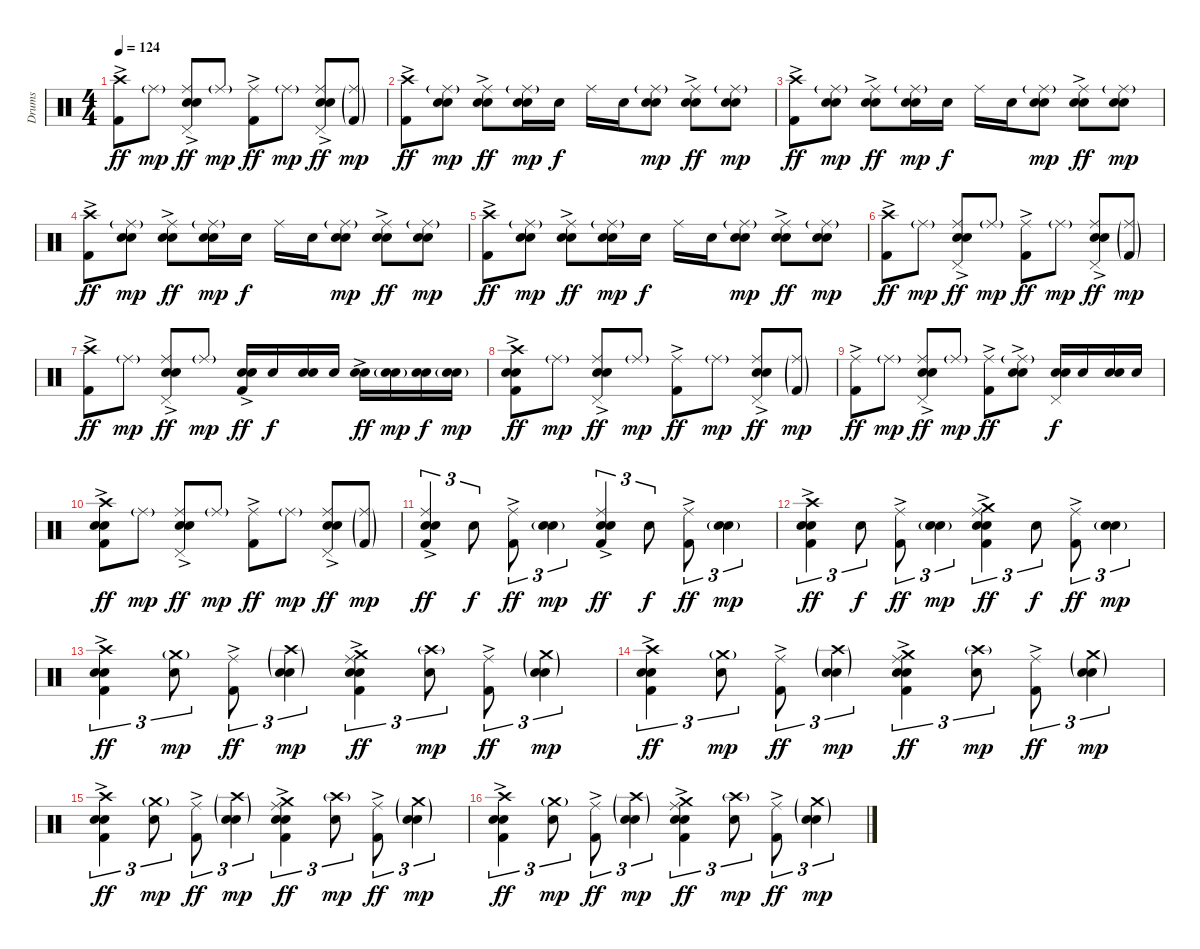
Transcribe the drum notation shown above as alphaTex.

\track ("Drums" "Drums") {instrument percussion}
\staff {score}
\articulation defaults
\ts (4 4)
\tempo 124
\clef neutral
\ks c
("Crash high (hit)" "Kick (hit) 2"{ac}).8{dy ff} "Ride (middle)"{g}.8{dy mp} ("Ride (middle)" "Electric Snare (hit)"{ac} "Snare (hit) 2" "Pedal Hi-Hat (hit)").8{dy ff} "Ride (middle)"{g}.8{dy mp} ("Ride (middle)" "Kick (hit) 2"{ac}).8{dy ff} "Ride (middle)"{g}.8{dy mp} ("Ride (middle)" "Electric Snare (hit)"{ac} "Snare (hit) 2" "Pedal Hi-Hat (hit)").8{dy ff} ("Ride (middle)"{g} "Kick (hit) 2"{g}).8{dy mp} |
("Crash high (hit)" "Kick (hit) 2"{ac}).8{dy ff} ("Ride (middle)"{g} "Electric Snare (hit)" "Snare (hit) 2").8{dy mp} ("Ride (middle)" "Electric Snare (hit)"{ac} "Snare (hit) 2").8{dy ff} ("Ride (middle)"{g} "Electric Snare (hit)" "Snare (hit) 2").16{dy mp} "Snare (hit) 2".16{dy f} "Ride (middle)".16 "Snare (hit) 2".16 ("Ride (middle)"{g} "Electric Snare (hit)" "Snare (hit) 2").8{dy mp} ("Ride (middle)" "Electric Snare (hit)"{ac} "Snare (hit) 2").8{dy ff} ("Ride (middle)"{g} "Electric Snare (hit)" "Snare (hit) 2").8{dy mp} |
("Crash high (hit)" "Kick (hit) 2"{ac}).8{dy ff} ("Ride (middle)"{g} "Electric Snare (hit)" "Snare (hit) 2").8{dy mp} ("Ride (middle)" "Electric Snare (hit)"{ac} "Snare (hit) 2").8{dy ff} ("Ride (middle)"{g} "Electric Snare (hit)" "Snare (hit) 2").16{dy mp} "Snare (hit) 2".16{dy f} "Ride (middle)".16 "Snare (hit) 2".16 ("Ride (middle)"{g} "Electric Snare (hit)" "Snare (hit) 2").8{dy mp} ("Ride (middle)" "Electric Snare (hit)"{ac} "Snare (hit) 2").8{dy ff} ("Ride (middle)"{g} "Electric Snare (hit)" "Snare (hit) 2").8{dy mp} |
("Crash high (hit)" "Kick (hit) 2"{ac}).8{dy ff} ("Ride (middle)"{g} "Electric Snare (hit)" "Snare (hit) 2").8{dy mp} ("Ride (middle)" "Electric Snare (hit)"{ac} "Snare (hit) 2").8{dy ff} ("Ride (middle)"{g} "Electric Snare (hit)" "Snare (hit) 2").16{dy mp} "Snare (hit) 2".16{dy f} "Ride (middle)".16 "Snare (hit) 2".16 ("Ride (middle)"{g} "Electric Snare (hit)" "Snare (hit) 2").8{dy mp} ("Ride (middle)" "Electric Snare (hit)"{ac} "Snare (hit) 2").8{dy ff} ("Ride (middle)"{g} "Electric Snare (hit)" "Snare (hit) 2").8{dy mp} |
("Crash high (hit)" "Kick (hit) 2"{ac}).8{dy ff} ("Ride (middle)"{g} "Electric Snare (hit)" "Snare (hit) 2").8{dy mp} ("Ride (middle)" "Electric Snare (hit)"{ac} "Snare (hit) 2").8{dy ff} ("Ride (middle)"{g} "Electric Snare (hit)" "Snare (hit) 2").16{dy mp} "Snare (hit) 2".16{dy f} "Ride (middle)".16 "Snare (hit) 2".16 ("Ride (middle)"{g} "Electric Snare (hit)" "Snare (hit) 2").8{dy mp} ("Ride (middle)" "Electric Snare (hit)"{ac} "Snare (hit) 2").8{dy ff} ("Ride (middle)"{g} "Electric Snare (hit)" "Snare (hit) 2").8{dy mp} |
("Crash high (hit)" "Kick (hit) 2"{ac}).8{dy ff} "Ride (middle)"{g}.8{dy mp} ("Ride (middle)" "Electric Snare (hit)"{ac} "Snare (hit) 2" "Pedal Hi-Hat (hit)").8{dy ff} "Ride (middle)"{g}.8{dy mp} ("Ride (middle)" "Kick (hit) 2"{ac}).8{dy ff} "Ride (middle)"{g}.8{dy mp} ("Ride (middle)" "Electric Snare (hit)"{ac} "Snare (hit) 2" "Pedal Hi-Hat (hit)").8{dy ff} ("Ride (middle)"{g} "Kick (hit) 2"{g}).8{dy mp} |
("Crash high (hit)" "Kick (hit) 2"{ac}).8{dy ff} "Ride (middle)"{g}.8{dy mp} ("Ride (middle)" "Electric Snare (hit)"{ac} "Snare (hit) 2" "Pedal Hi-Hat (hit)").8{dy ff} "Ride (middle)"{g}.8{dy mp} ("Electric Snare (hit)" "Snare (hit) 2" "Kick (hit) 2"{ac}).16{dy ff} "Snare (hit) 2".16{dy f} ("Electric Snare (hit)" "Snare (hit) 2").16 "Snare (hit) 2".16 ("Electric Snare (hit)"{ac} "Snare (hit) 2").16{dy ff} ("Electric Snare (hit)"{g} "Snare (hit) 2").16{dy mp} ("Electric Snare (hit)" "Snare (hit) 2").16{dy f} ("Electric Snare (hit)"{g} "Snare (hit) 2").16{dy mp} |
("Crash high (hit)" "Electric Snare (hit)" "Snare (hit) 2" "Kick (hit) 2"{ac}).8{dy ff} "Ride (middle)"{g}.8{dy mp} ("Ride (middle)" "Electric Snare (hit)"{ac} "Snare (hit) 2" "Pedal Hi-Hat (hit)").8{dy ff} "Ride (middle)"{g}.8{dy mp} ("Ride (middle)" "Kick (hit) 2"{ac}).8{dy ff} "Ride (middle)"{g}.8{dy mp} ("Ride (middle)" "Electric Snare (hit)"{ac} "Snare (hit) 2" "Pedal Hi-Hat (hit)").8{dy ff} ("Ride (middle)"{g} "Kick (hit) 2"{g}).8{dy mp} |
("Ride (middle)" "Kick (hit) 2"{ac}).8{dy ff} "Ride (middle)"{g}.8{dy mp} ("Ride (middle)" "Electric Snare (hit)"{ac} "Snare (hit) 2" "Pedal Hi-Hat (hit)").8{dy ff} "Ride (middle)"{g}.8{dy mp} ("Ride (middle)" "Kick (hit) 2"{ac}).8{dy ff} ("Ride (middle)"{g} "Electric Snare (hit)"{ac} "Snare (hit) 2").8 ("Electric Snare (hit)" "Snare (hit) 2" "Pedal Hi-Hat (hit)").16{dy f} "Snare (hit) 2".16 ("Electric Snare (hit)" "Snare (hit) 2").16 "Snare (hit) 2".16 |
("Crash high (hit)" "Electric Snare (hit)" "Snare (hit) 2" "Kick (hit) 2"{ac}).8{dy ff} "Ride (middle)"{g}.8{dy mp} ("Ride (middle)" "Electric Snare (hit)"{ac} "Snare (hit) 2" "Pedal Hi-Hat (hit)").8{dy ff} "Ride (middle)"{g}.8{dy mp} ("Ride (middle)" "Kick (hit) 2"{ac}).8{dy ff} "Ride (middle)"{g}.8{dy mp} ("Ride (middle)" "Electric Snare (hit)"{ac} "Snare (hit) 2" "Pedal Hi-Hat (hit)").8{dy ff} ("Ride (middle)"{g} "Kick (hit) 2"{g}).8{dy mp} |
("Ride (middle)" "Electric Snare (hit)"{ac} "Snare (hit) 2" "Kick (hit) 2"{ac}).4{tu (3 2) dy ff} "Snare (hit) 2".8{tu (3 2) dy f} ("Ride (middle)" "Kick (hit) 2"{ac}).8{tu (3 2) dy ff} ("Electric Snare (hit)"{g} "Snare (hit) 2").4{tu (3 2) dy mp} ("Ride (middle)" "Electric Snare (hit)"{ac} "Snare (hit) 2" "Kick (hit) 2"{ac}).4{tu (3 2) dy ff} "Snare (hit) 2".8{tu (3 2) dy f} ("Ride (middle)" "Kick (hit) 2"{ac}).8{tu (3 2) dy ff} ("Electric Snare (hit)"{g} "Snare (hit) 2").4{tu (3 2) dy mp} |
("Crash high (hit)" "Electric Snare (hit)"{ac} "Snare (hit) 2" "Kick (hit) 2"{ac}).4{tu (3 2) dy ff} "Snare (hit) 2".8{tu (3 2) dy f} ("Ride (middle)" "Kick (hit) 2"{ac}).8{tu (3 2) dy ff} ("Electric Snare (hit)"{g} "Snare (hit) 2").4{tu (3 2) dy mp} ("Ride (middle)" "Crash medium (hit)" "Electric Snare (hit)"{ac} "Snare (hit) 2" "Kick (hit) 2"{ac}).4{tu (3 2) dy ff} "Snare (hit) 2".8{tu (3 2) dy f} ("Ride (middle)" "Kick (hit) 2"{ac}).8{tu (3 2) dy ff} ("Electric Snare (hit)"{g} "Snare (hit) 2").4{tu (3 2) dy mp} |
("Crash high (hit)" "Electric Snare (hit)"{ac} "Snare (hit) 2" "Kick (hit) 2"{ac}).4{tu (3 2) dy ff} ("Crash medium (hit)"{g} "Snare (hit) 2").8{tu (3 2) dy mp} ("Ride (middle)" "Kick (hit) 2"{ac}).8{tu (3 2) dy ff} ("Crash high (hit)"{g} "Electric Snare (hit)"{g} "Snare (hit) 2").4{tu (3 2) dy mp} ("Ride (middle)" "Crash medium (hit)" "Electric Snare (hit)"{ac} "Snare (hit) 2" "Kick (hit) 2"{ac}).4{tu (3 2) dy ff} ("Crash high (hit)"{g} "Snare (hit) 2").8{tu (3 2) dy mp} ("Ride (middle)" "Kick (hit) 2"{ac}).8{tu (3 2) dy ff} ("Crash medium (hit)"{g} "Electric Snare (hit)"{g} "Snare (hit) 2").4{tu (3 2) dy mp} |
("Crash high (hit)" "Electric Snare (hit)"{ac} "Snare (hit) 2" "Kick (hit) 2"{ac}).4{tu (3 2) dy ff} ("Crash medium (hit)"{g} "Snare (hit) 2").8{tu (3 2) dy mp} ("Ride (middle)" "Kick (hit) 2"{ac}).8{tu (3 2) dy ff} ("Crash high (hit)"{g} "Electric Snare (hit)"{g} "Snare (hit) 2").4{tu (3 2) dy mp} ("Ride (middle)" "Crash medium (hit)" "Electric Snare (hit)"{ac} "Snare (hit) 2" "Kick (hit) 2"{ac}).4{tu (3 2) dy ff} ("Crash high (hit)"{g} "Snare (hit) 2").8{tu (3 2) dy mp} ("Ride (middle)" "Kick (hit) 2"{ac}).8{tu (3 2) dy ff} ("Crash medium (hit)"{g} "Electric Snare (hit)"{g} "Snare (hit) 2").4{tu (3 2) dy mp} |
("Crash high (hit)" "Electric Snare (hit)"{ac} "Snare (hit) 2" "Kick (hit) 2"{ac}).4{tu (3 2) dy ff} ("Crash medium (hit)"{g} "Snare (hit) 2").8{tu (3 2) dy mp} ("Ride (middle)" "Kick (hit) 2"{ac}).8{tu (3 2) dy ff} ("Crash high (hit)"{g} "Electric Snare (hit)"{g} "Snare (hit) 2").4{tu (3 2) dy mp} ("Ride (middle)" "Crash medium (hit)" "Electric Snare (hit)"{ac} "Snare (hit) 2" "Kick (hit) 2"{ac}).4{tu (3 2) dy ff} ("Crash high (hit)"{g} "Snare (hit) 2").8{tu (3 2) dy mp} ("Ride (middle)" "Kick (hit) 2"{ac}).8{tu (3 2) dy ff} ("Crash medium (hit)"{g} "Electric Snare (hit)"{g} "Snare (hit) 2").4{tu (3 2) dy mp} |
("Crash high (hit)" "Electric Snare (hit)"{ac} "Snare (hit) 2" "Kick (hit) 2"{ac}).4{tu (3 2) dy ff} ("Crash medium (hit)"{g} "Snare (hit) 2").8{tu (3 2) dy mp} ("Ride (middle)" "Kick (hit) 2"{ac}).8{tu (3 2) dy ff} ("Crash high (hit)"{g} "Electric Snare (hit)"{g} "Snare (hit) 2").4{tu (3 2) dy mp} ("Ride (middle)" "Crash medium (hit)" "Electric Snare (hit)"{ac} "Snare (hit) 2" "Kick (hit) 2"{ac}).4{tu (3 2) dy ff} ("Crash high (hit)"{g} "Snare (hit) 2").8{tu (3 2) dy mp} ("Ride (middle)" "Kick (hit) 2"{ac}).8{tu (3 2) dy ff} ("Crash medium (hit)"{g} "Electric Snare (hit)"{g} "Snare (hit) 2").4{tu (3 2) dy mp}
